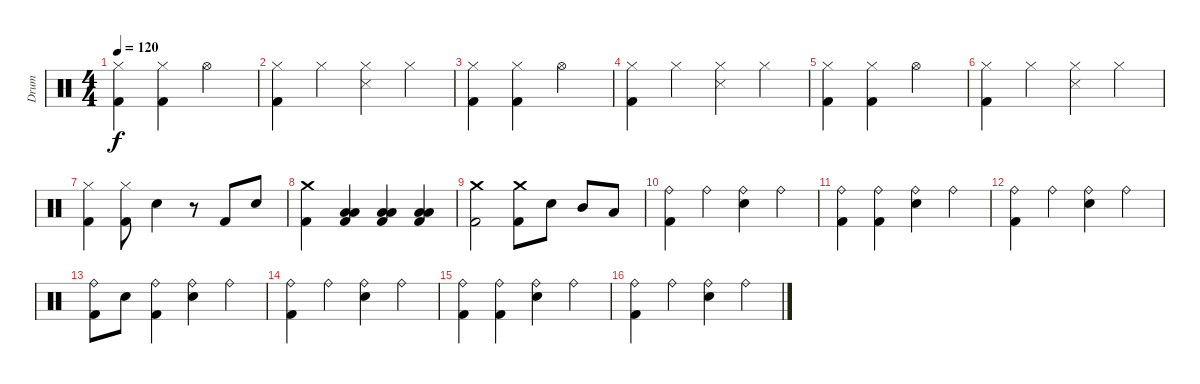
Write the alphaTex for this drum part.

\track ("Drum" "Drum") {instrument percussion}
\staff {score}
\articulation defaults
\ts (4 4)
\tempo 120
\clef neutral
\ks c
("Hi-Hat (closed)" "Kick (hit) 2").4{dy f} ("Hi-Hat (closed)" "Kick (hit) 2").4 "Hi-Hat (open)".2 |
("Hi-Hat (closed)" "Kick (hit) 2").4 "Hi-Hat (closed)".4 ("Hi-Hat (closed)" "Snare (side stick) 3").4 "Hi-Hat (closed)".4 |
("Hi-Hat (closed)" "Kick (hit) 2").4 ("Hi-Hat (closed)" "Kick (hit) 2").4 "Hi-Hat (open)".2 |
("Hi-Hat (closed)" "Kick (hit) 2").4 "Hi-Hat (closed)".4 ("Hi-Hat (closed)" "Snare (side stick) 3").4 "Hi-Hat (closed)".4 |
("Hi-Hat (closed)" "Kick (hit) 2").4 ("Hi-Hat (closed)" "Kick (hit) 2").4 "Hi-Hat (open)".2 |
("Hi-Hat (closed)" "Kick (hit) 2").4 "Hi-Hat (closed)".4 ("Hi-Hat (closed)" "Snare (side stick) 3").4 "Hi-Hat (closed)".4 |
("Hi-Hat (closed)" "Kick (hit) 2").4 ("Hi-Hat (closed)" "Kick (hit) 2").8 "Snare (hit) 2".4 r.8 "Kick (hit) 2".8 "Snare (hit) 2".8 |
("Crash medium (hit)" "Kick (hit) 2").4 ("Low Tom (hit)" "Low Floor Tom (hit)" "Kick (hit) 2").4 ("Low Tom (hit)" "Low Floor Tom (hit)" "Kick (hit) 2").4 ("Low Tom (hit)" "Low Floor Tom (hit)" "Kick (hit) 2").4 |
("Kick (hit) 2" "Crash medium (hit)").2 ("Kick (hit) 2" "Crash medium (hit)").8 "Snare (hit) 2".8 "Mid Tom (hit)".8 "Low Tom (hit)".8 |
("Ride (bell)" "Kick (hit) 2").4 "Ride (bell)".4 ("Ride (bell)" "Snare (hit) 2").4 "Ride (bell)".4 |
("Ride (bell)" "Kick (hit) 2").4 ("Ride (bell)" "Kick (hit) 2").4 ("Ride (bell)" "Snare (hit) 2").4 "Ride (bell)".4 |
("Ride (bell)" "Kick (hit) 2").4 "Ride (bell)".4 ("Ride (bell)" "Snare (hit) 2").4 "Ride (bell)".4 |
("Ride (bell)" "Kick (hit) 2").8 "Snare (hit) 2".8 ("Ride (bell)" "Kick (hit) 2").4 ("Ride (bell)" "Snare (hit) 2").4 "Ride (bell)".4 |
("Ride (bell)" "Kick (hit) 2").4 "Ride (bell)".4 ("Ride (bell)" "Snare (hit) 2").4 "Ride (bell)".4 |
("Ride (bell)" "Kick (hit) 2").4 ("Ride (bell)" "Kick (hit) 2").4 ("Ride (bell)" "Snare (hit) 2").4 "Ride (bell)".4 |
("Ride (bell)" "Kick (hit) 2").4 "Ride (bell)".4 ("Ride (bell)" "Snare (hit) 2").4 "Ride (bell)".4
